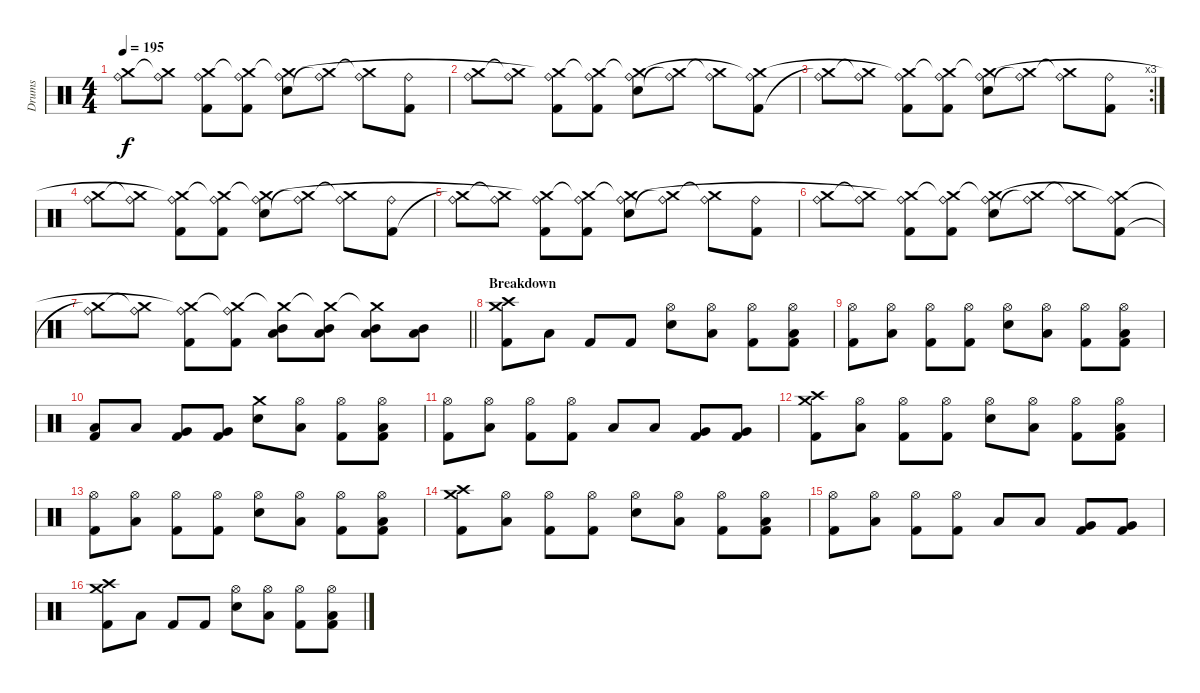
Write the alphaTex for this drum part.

\track ("Drums" "Drums") {instrument percussion}
\staff {score}
\articulation defaults
\ts (4 4)
\tempo 195
\clef neutral
\ks c
("Ride (bell)" "Crash medium (hit)"{t}).8{dy f} ("Ride (bell)" "Crash medium (hit)"{t}).8 ("Ride (bell)" "Kick (hit) 2" "Crash medium (hit)"{t}).8 ("Ride (bell)" "Kick (hit) 2" "Crash medium (hit)"{t}).8 ("Ride (bell)" "Snare (hit) 2" "Crash medium (hit)"{t}).8 ("Ride (bell)" "Crash medium (hit)"{t}).8 ("Ride (bell)" "Crash medium (hit)"{t}).8 ("Ride (bell)" "Kick (hit) 2").8 |
("Ride (bell)" "Crash medium (hit)").8 ("Ride (bell)" "Crash medium (hit)"{t}).8 ("Ride (bell)" "Kick (hit) 2" "Crash medium (hit)"{t}).8 ("Ride (bell)" "Kick (hit) 2" "Crash medium (hit)"{t}).8 ("Ride (bell)" "Snare (hit) 2" "Crash medium (hit)"{t}).8 ("Ride (bell)" "Crash medium (hit)"{t}).8 ("Ride (bell)" "Crash medium (hit)"{t}).8 ("Ride (bell)" "Kick (hit) 2" "Crash medium (hit)"{t}).8 |
\rc 3
("Ride (bell)" "Crash medium (hit)"{t}).8 ("Ride (bell)" "Crash medium (hit)"{t}).8 ("Ride (bell)" "Kick (hit) 2" "Crash medium (hit)"{t}).8 ("Ride (bell)" "Kick (hit) 2" "Crash medium (hit)"{t}).8 ("Ride (bell)" "Snare (hit) 2" "Crash medium (hit)"{t}).8 ("Ride (bell)" "Crash medium (hit)"{t}).8 ("Ride (bell)" "Crash medium (hit)"{t}).8 ("Ride (bell)" "Kick (hit) 2").8 |
("Ride (bell)" "Crash medium (hit)").8 ("Ride (bell)" "Crash medium (hit)"{t}).8 ("Ride (bell)" "Kick (hit) 2" "Crash medium (hit)"{t}).8 ("Ride (bell)" "Kick (hit) 2" "Crash medium (hit)"{t}).8 ("Ride (bell)" "Snare (hit) 2" "Crash medium (hit)"{t}).8 ("Ride (bell)" "Crash medium (hit)"{t}).8 ("Ride (bell)" "Crash medium (hit)"{t}).8 ("Ride (bell)" "Kick (hit) 2").8 |
("Ride (bell)" "Crash medium (hit)"{t}).8 ("Ride (bell)" "Crash medium (hit)"{t}).8 ("Ride (bell)" "Kick (hit) 2" "Crash medium (hit)"{t}).8 ("Ride (bell)" "Kick (hit) 2" "Crash medium (hit)"{t}).8 ("Ride (bell)" "Snare (hit) 2" "Crash medium (hit)"{t}).8 ("Ride (bell)" "Crash medium (hit)"{t}).8 ("Ride (bell)" "Crash medium (hit)"{t}).8 ("Ride (bell)" "Kick (hit) 2").8 |
("Ride (bell)" "Crash medium (hit)").8 ("Ride (bell)" "Crash medium (hit)"{t}).8 ("Ride (bell)" "Kick (hit) 2" "Crash medium (hit)"{t}).8 ("Ride (bell)" "Kick (hit) 2" "Crash medium (hit)"{t}).8 ("Ride (bell)" "Snare (hit) 2" "Crash medium (hit)"{t}).8 ("Ride (bell)" "Crash medium (hit)"{t}).8 ("Ride (bell)" "Crash medium (hit)"{t}).8 ("Ride (bell)" "Kick (hit) 2" "Crash medium (hit)"{t}).8 |
\barLineRight lightlight
("Ride (bell)" "Crash medium (hit)"{t}).8 ("Ride (bell)" "Crash medium (hit)"{t}).8 ("Ride (bell)" "Kick (hit) 2" "Crash medium (hit)"{t}).8 ("Ride (bell)" "Kick (hit) 2" "Crash medium (hit)"{t}).8 ("Mid Tom (hit)" "Low Tom (hit)" "Crash medium (hit)"{t}).8 ("Mid Tom (hit)" "Low Tom (hit)" "Crash medium (hit)"{t}).8 ("Low Floor Tom (hit)" "Mid Tom (hit)" "Crash medium (hit)"{t}).8 ("Low Floor Tom (hit)" "Mid Tom (hit)").8 |
\section ("" "Breakdown")
("Crash high (hit)" "Crash medium (hit)" "Kick (hit) 2").8 "Low Tom (hit)".8 "Kick (hit) 2".8 "Kick (hit) 2".8 ("Hi-Hat (open)" "Snare (hit) 2").8 ("Hi-Hat (open)" "Low Tom (hit)").8 ("Hi-Hat (open)" "Kick (hit) 2").8 ("Hi-Hat (open)" "Low Tom (hit)" "Kick (hit) 2").8 |
("Hi-Hat (open)" "Kick (hit) 2").8 ("Hi-Hat (open)" "Low Tom (hit)").8 ("Hi-Hat (open)" "Kick (hit) 2").8 ("Hi-Hat (open)" "Kick (hit) 2").8 ("Hi-Hat (open)" "Snare (hit) 2").8 ("Hi-Hat (open)" "Low Tom (hit)").8 ("Hi-Hat (open)" "Kick (hit) 2").8 ("Hi-Hat (open)" "Low Tom (hit)" "Kick (hit) 2").8 |
("Low Tom (hit)" "Kick (hit) 2").8 "Low Tom (hit)".8 ("Very Low Tom (hit)" "Kick (hit) 2").8 ("Very Low Tom (hit)" "Kick (hit) 2").8 ("Crash medium (hit)" "Snare (hit) 2").8 ("Hi-Hat (open)" "Low Tom (hit)").8 ("Hi-Hat (open)" "Kick (hit) 2").8 ("Hi-Hat (open)" "Low Tom (hit)" "Kick (hit) 2").8 |
("Hi-Hat (open)" "Kick (hit) 2").8 ("Hi-Hat (open)" "Low Tom (hit)").8 ("Hi-Hat (open)" "Kick (hit) 2").8 ("Hi-Hat (open)" "Kick (hit) 2").8 "Low Tom (hit)".8 "Low Tom (hit)".8 ("Very Low Tom (hit)" "Kick (hit) 2").8 ("Very Low Tom (hit)" "Kick (hit) 2").8 |
("Crash high (hit)" "Crash medium (hit)" "Kick (hit) 2").8 ("Hi-Hat (open)" "Low Tom (hit)").8 ("Hi-Hat (open)" "Kick (hit) 2").8 ("Hi-Hat (open)" "Kick (hit) 2").8 ("Hi-Hat (open)" "Snare (hit) 2").8 ("Hi-Hat (open)" "Low Tom (hit)").8 ("Hi-Hat (open)" "Kick (hit) 2").8 ("Hi-Hat (open)" "Low Tom (hit)" "Kick (hit) 2").8 |
("Hi-Hat (open)" "Kick (hit) 2").8 ("Hi-Hat (open)" "Low Tom (hit)").8 ("Hi-Hat (open)" "Kick (hit) 2").8 ("Hi-Hat (open)" "Kick (hit) 2").8 ("Hi-Hat (open)" "Snare (hit) 2").8 ("Hi-Hat (open)" "Low Tom (hit)").8 ("Hi-Hat (open)" "Kick (hit) 2").8 ("Hi-Hat (open)" "Low Tom (hit)" "Kick (hit) 2").8 |
("Crash high (hit)" "Crash medium (hit)" "Kick (hit) 2").8 ("Hi-Hat (open)" "Low Tom (hit)").8 ("Hi-Hat (open)" "Kick (hit) 2").8 ("Hi-Hat (open)" "Kick (hit) 2").8 ("Hi-Hat (open)" "Snare (hit) 2").8 ("Hi-Hat (open)" "Low Tom (hit)").8 ("Hi-Hat (open)" "Kick (hit) 2").8 ("Hi-Hat (open)" "Low Tom (hit)" "Kick (hit) 2").8 |
("Hi-Hat (open)" "Kick (hit) 2").8 ("Hi-Hat (open)" "Low Tom (hit)").8 ("Hi-Hat (open)" "Kick (hit) 2").8 ("Hi-Hat (open)" "Kick (hit) 2").8 "Low Tom (hit)".8 "Low Tom (hit)".8 ("Very Low Tom (hit)" "Kick (hit) 2").8 ("Very Low Tom (hit)" "Kick (hit) 2").8 |
("Crash high (hit)" "Crash medium (hit)" "Kick (hit) 2").8 "Low Tom (hit)".8 "Kick (hit) 2".8 "Kick (hit) 2".8 ("Hi-Hat (open)" "Snare (hit) 2").8 ("Hi-Hat (open)" "Low Tom (hit)").8 ("Hi-Hat (open)" "Kick (hit) 2").8 ("Hi-Hat (open)" "Low Tom (hit)" "Kick (hit) 2").8
